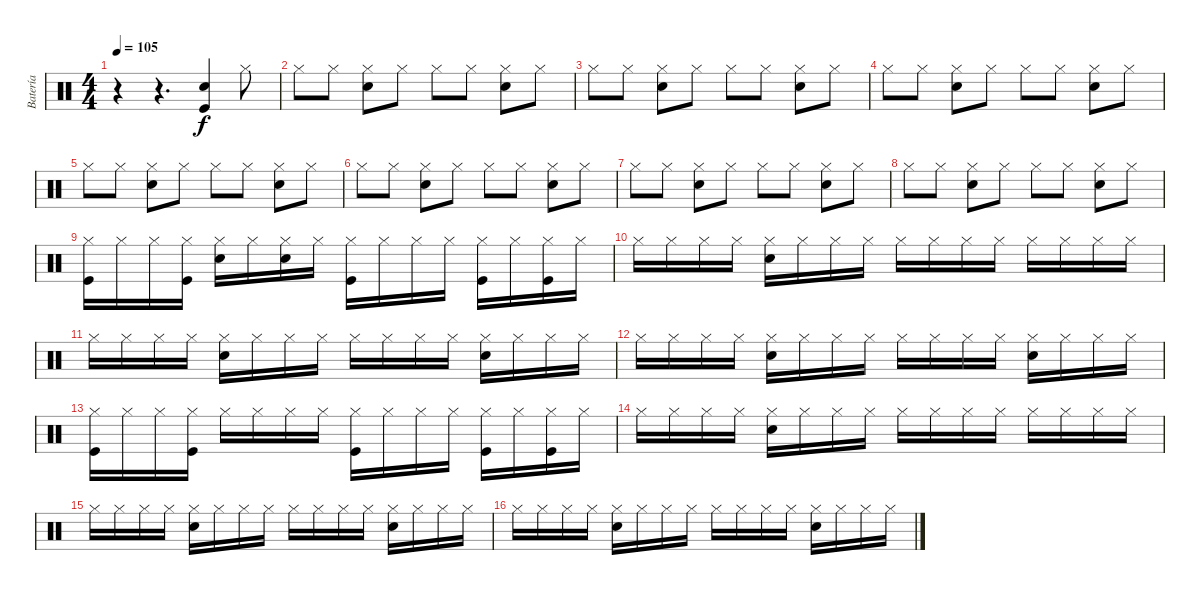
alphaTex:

\track ("Batería" "Batería") {instrument percussion}
\staff {score}
\articulation defaults
\ts (4 4)
\tempo 105
\clef neutral
\ks c
r.4{dy f} r.4{d} ("Kick (hit)" "Snare (hit) 2").4 "Hi-Hat (closed)".8 |
"Hi-Hat (closed)".8 "Hi-Hat (closed)".8 ("Snare (hit) 2" "Hi-Hat (closed)").8 "Hi-Hat (closed)".8 "Hi-Hat (closed)".8 "Hi-Hat (closed)".8 ("Snare (hit) 2" "Hi-Hat (closed)").8 "Hi-Hat (closed)".8 |
"Hi-Hat (closed)".8 "Hi-Hat (closed)".8 ("Snare (hit) 2" "Hi-Hat (closed)").8 "Hi-Hat (closed)".8 "Hi-Hat (closed)".8 "Hi-Hat (closed)".8 ("Snare (hit) 2" "Hi-Hat (closed)").8 "Hi-Hat (closed)".8 |
"Hi-Hat (closed)".8 "Hi-Hat (closed)".8 ("Snare (hit) 2" "Hi-Hat (closed)").8 "Hi-Hat (closed)".8 "Hi-Hat (closed)".8 "Hi-Hat (closed)".8 ("Snare (hit) 2" "Hi-Hat (closed)").8 "Hi-Hat (closed)".8 |
"Hi-Hat (closed)".8 "Hi-Hat (closed)".8 ("Snare (hit) 2" "Hi-Hat (closed)").8 "Hi-Hat (closed)".8 "Hi-Hat (closed)".8 "Hi-Hat (closed)".8 ("Snare (hit) 2" "Hi-Hat (closed)").8 "Hi-Hat (closed)".8 |
"Hi-Hat (closed)".8 "Hi-Hat (closed)".8 ("Snare (hit) 2" "Hi-Hat (closed)").8 "Hi-Hat (closed)".8 "Hi-Hat (closed)".8 "Hi-Hat (closed)".8 ("Snare (hit) 2" "Hi-Hat (closed)").8 "Hi-Hat (closed)".8 |
"Hi-Hat (closed)".8 "Hi-Hat (closed)".8 ("Snare (hit) 2" "Hi-Hat (closed)").8 "Hi-Hat (closed)".8 "Hi-Hat (closed)".8 "Hi-Hat (closed)".8 ("Snare (hit) 2" "Hi-Hat (closed)").8 "Hi-Hat (closed)".8 |
"Hi-Hat (closed)".8 "Hi-Hat (closed)".8 ("Snare (hit) 2" "Hi-Hat (closed)").8 "Hi-Hat (closed)".8 "Hi-Hat (closed)".8 "Hi-Hat (closed)".8 ("Snare (hit) 2" "Hi-Hat (closed)").8 "Hi-Hat (closed)".8 |
("Hi-Hat (closed)" "Kick (hit)").16 "Hi-Hat (closed)".16 "Hi-Hat (closed)".16 ("Hi-Hat (closed)" "Kick (hit)").16 ("Hi-Hat (closed)" "Hand Clap (hit)").16 "Hi-Hat (closed)".16 ("Hi-Hat (closed)" "Hand Clap (hit)").16 "Hi-Hat (closed)".16 ("Hi-Hat (closed)" "Kick (hit)").16 "Hi-Hat (closed)".16 "Hi-Hat (closed)".16 "Hi-Hat (closed)".16 ("Hi-Hat (closed)" "Kick (hit)").16 "Hi-Hat (closed)".16 ("Hi-Hat (closed)" "Kick (hit)").16 "Hi-Hat (closed)".16 |
"Hi-Hat (closed)".16 "Hi-Hat (closed)".16 "Hi-Hat (closed)".16 "Hi-Hat (closed)".16 ("Hi-Hat (closed)" "Snare (hit) 2").16 "Hi-Hat (closed)".16 "Hi-Hat (closed)".16 "Hi-Hat (closed)".16 "Hi-Hat (closed)".16 "Hi-Hat (closed)".16 "Hi-Hat (closed)".16 "Hi-Hat (closed)".16 "Hi-Hat (closed)".16 "Hi-Hat (closed)".16 "Hi-Hat (closed)".16 "Hi-Hat (closed)".16 |
"Hi-Hat (closed)".16 "Hi-Hat (closed)".16 "Hi-Hat (closed)".16 "Hi-Hat (closed)".16 ("Hi-Hat (closed)" "Snare (hit) 2").16 "Hi-Hat (closed)".16 "Hi-Hat (closed)".16 "Hi-Hat (closed)".16 "Hi-Hat (closed)".16 "Hi-Hat (closed)".16 "Hi-Hat (closed)".16 "Hi-Hat (closed)".16 ("Hi-Hat (closed)" "Snare (hit) 2").16 "Hi-Hat (closed)".16 "Hi-Hat (closed)".16 "Hi-Hat (closed)".16 |
"Hi-Hat (closed)".16 "Hi-Hat (closed)".16 "Hi-Hat (closed)".16 "Hi-Hat (closed)".16 ("Hi-Hat (closed)" "Snare (hit) 2").16 "Hi-Hat (closed)".16 "Hi-Hat (closed)".16 "Hi-Hat (closed)".16 "Hi-Hat (closed)".16 "Hi-Hat (closed)".16 "Hi-Hat (closed)".16 "Hi-Hat (closed)".16 ("Hi-Hat (closed)" "Snare (hit) 2").16 "Hi-Hat (closed)".16 "Hi-Hat (closed)".16 "Hi-Hat (closed)".16 |
("Hi-Hat (closed)" "Kick (hit)").16 "Hi-Hat (closed)".16 "Hi-Hat (closed)".16 ("Hi-Hat (closed)" "Kick (hit)").16 "Hi-Hat (closed)".16 "Hi-Hat (closed)".16 "Hi-Hat (closed)".16 "Hi-Hat (closed)".16 ("Hi-Hat (closed)" "Kick (hit)").16 "Hi-Hat (closed)".16 "Hi-Hat (closed)".16 "Hi-Hat (closed)".16 ("Hi-Hat (closed)" "Kick (hit)").16 "Hi-Hat (closed)".16 ("Hi-Hat (closed)" "Kick (hit)").16 "Hi-Hat (closed)".16 |
"Hi-Hat (closed)".16 "Hi-Hat (closed)".16 "Hi-Hat (closed)".16 "Hi-Hat (closed)".16 ("Hi-Hat (closed)" "Snare (hit) 2").16 "Hi-Hat (closed)".16 "Hi-Hat (closed)".16 "Hi-Hat (closed)".16 "Hi-Hat (closed)".16 "Hi-Hat (closed)".16 "Hi-Hat (closed)".16 "Hi-Hat (closed)".16 "Hi-Hat (closed)".16 "Hi-Hat (closed)".16 "Hi-Hat (closed)".16 "Hi-Hat (closed)".16 |
"Hi-Hat (closed)".16 "Hi-Hat (closed)".16 "Hi-Hat (closed)".16 "Hi-Hat (closed)".16 ("Hi-Hat (closed)" "Snare (hit) 2").16 "Hi-Hat (closed)".16 "Hi-Hat (closed)".16 "Hi-Hat (closed)".16 "Hi-Hat (closed)".16 "Hi-Hat (closed)".16 "Hi-Hat (closed)".16 "Hi-Hat (closed)".16 ("Hi-Hat (closed)" "Snare (hit) 2").16 "Hi-Hat (closed)".16 "Hi-Hat (closed)".16 "Hi-Hat (closed)".16 |
"Hi-Hat (closed)".16 "Hi-Hat (closed)".16 "Hi-Hat (closed)".16 "Hi-Hat (closed)".16 ("Hi-Hat (closed)" "Snare (hit) 2").16 "Hi-Hat (closed)".16 "Hi-Hat (closed)".16 "Hi-Hat (closed)".16 "Hi-Hat (closed)".16 "Hi-Hat (closed)".16 "Hi-Hat (closed)".16 "Hi-Hat (closed)".16 ("Hi-Hat (closed)" "Snare (hit) 2").16 "Hi-Hat (closed)".16 "Hi-Hat (closed)".16 "Hi-Hat (closed)".16
